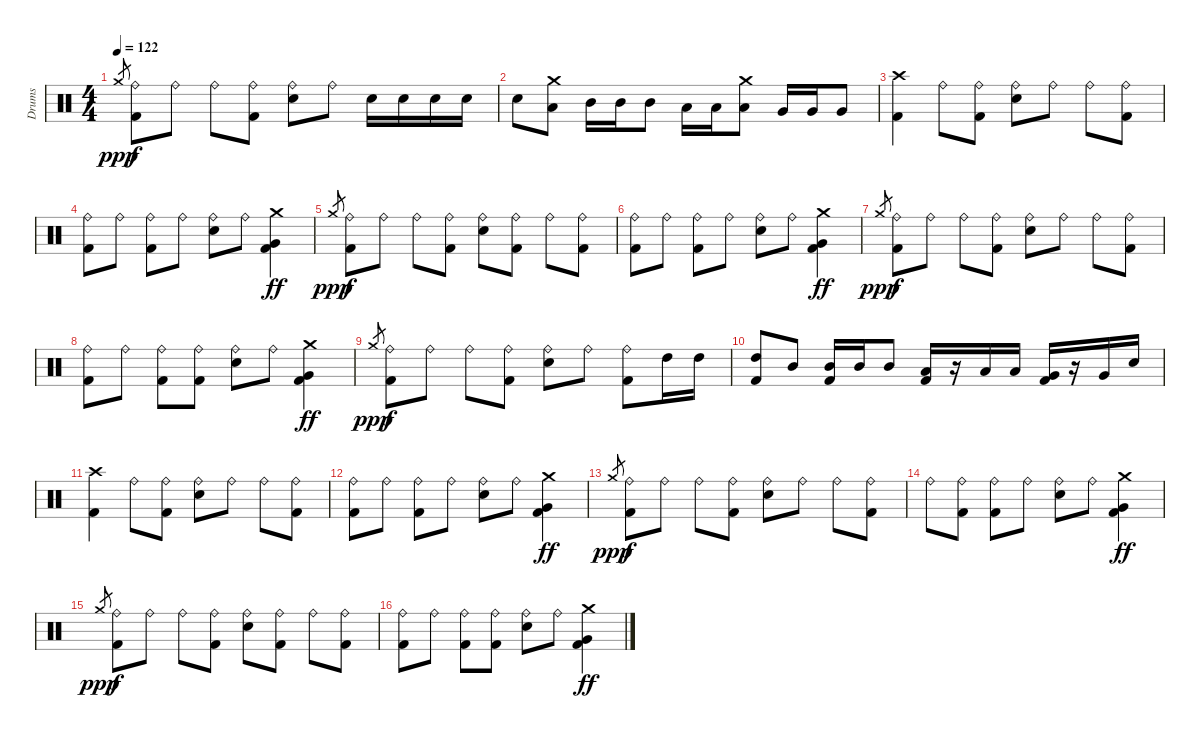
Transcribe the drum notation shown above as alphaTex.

\track ("Drums" "Drums") {instrument percussion}
\staff {score}
\articulation defaults
\ts (4 4)
\tempo 122
\clef neutral
\ks c "Crash medium (hit)".8{gr dy ppp}
("Ride (bell)" "Kick (hit) 2").8{dy f} "Ride (bell)".8 "Ride (bell)".8 ("Ride (bell)" "Kick (hit) 2").8 ("Ride (bell)" "Snare (hit) 2").8 "Ride (bell)".8 "Snare (hit) 2".16 "Snare (hit) 2".16 "Snare (hit) 2".16 "Snare (hit) 2".16 |
"Snare (hit) 2".8 ("Crash medium (hit)" "Low Tom (hit)").8 "Mid Tom (hit)".16 "Mid Tom (hit)".16 "Mid Tom (hit)".8 "Low Tom (hit)".16 "Low Tom (hit)".16 ("Crash medium (hit)" "Low Tom (hit)").8 "Very Low Tom (hit)".16 "Very Low Tom (hit)".16 "Very Low Tom (hit)".8 |
("Crash high (hit)" "Kick (hit) 2").4 "Ride (bell)".8 ("Ride (bell)" "Kick (hit) 2").8 ("Ride (bell)" "Snare (hit) 2").8 "Ride (bell)".8 "Ride (bell)".8 ("Ride (bell)" "Kick (hit) 2").8 |
("Ride (bell)" "Kick (hit) 2").8 "Ride (bell)".8 ("Ride (bell)" "Kick (hit) 2").8 "Ride (bell)".8 ("Ride (bell)" "Snare (hit) 2").8 "Ride (bell)".8 ("Crash medium (hit)" "Very Low Tom (hit)" "Kick (hit) 2").4{dy ff} |
"Crash medium (hit)".8{gr dy ppp} ("Ride (bell)" "Kick (hit) 2").8{dy f} "Ride (bell)".8 "Ride (bell)".8 ("Ride (bell)" "Kick (hit) 2").8 ("Ride (bell)" "Snare (hit) 2").8 ("Ride (bell)" "Kick (hit) 2").8 "Ride (bell)".8 ("Ride (bell)" "Kick (hit) 2").8 |
("Ride (bell)" "Kick (hit) 2").8 "Ride (bell)".8 ("Ride (bell)" "Kick (hit) 2").8 "Ride (bell)".8 ("Ride (bell)" "Snare (hit) 2").8 "Ride (bell)".8 ("Crash medium (hit)" "Very Low Tom (hit)" "Kick (hit) 2").4{dy ff} |
"Crash medium (hit)".8{gr dy ppp} ("Ride (bell)" "Kick (hit) 2").8{dy f} "Ride (bell)".8 "Ride (bell)".8 ("Ride (bell)" "Kick (hit) 2").8 ("Ride (bell)" "Snare (hit) 2").8 "Ride (bell)".8 "Ride (bell)".8 ("Ride (bell)" "Kick (hit) 2").8 |
("Ride (bell)" "Kick (hit) 2").8 "Ride (bell)".8 ("Ride (bell)" "Kick (hit) 2").8 ("Ride (bell)" "Kick (hit) 2").8 ("Ride (bell)" "Snare (hit) 2").8 "Ride (bell)".8 ("Crash medium (hit)" "Very Low Tom (hit)" "Kick (hit) 2").4{dy ff} |
"Crash medium (hit)".8{gr dy ppp} ("Ride (bell)" "Kick (hit) 2").8{dy f} "Ride (bell)".8 "Ride (bell)".8 ("Ride (bell)" "Kick (hit) 2").8 ("Ride (bell)" "Snare (hit) 2").8 "Ride (bell)".8 ("Ride (bell)" "Kick (hit) 2").8 "High Tom (hit)".16 "High Tom (hit)".16 |
("High Tom (hit)" "Kick (hit) 2").8 "Mid Tom (hit)".8 ("Mid Tom (hit)" "Kick (hit) 2").16 "Mid Tom (hit)".16 "Mid Tom (hit)".8 ("Low Tom (hit)" "Kick (hit) 2").16 r.16 "Low Tom (hit)".16 "Low Tom (hit)".16 ("Very Low Tom (hit)" "Kick (hit) 2").16 r.16 "Very Low Tom (hit)".16 "Snare (hit) 2".16 |
("Crash high (hit)" "Kick (hit) 2").4 "Ride (bell)".8 ("Ride (bell)" "Kick (hit) 2").8 ("Ride (bell)" "Snare (hit) 2").8 "Ride (bell)".8 "Ride (bell)".8 ("Ride (bell)" "Kick (hit) 2").8 |
("Ride (bell)" "Kick (hit) 2").8 "Ride (bell)".8 ("Ride (bell)" "Kick (hit) 2").8 "Ride (bell)".8 ("Ride (bell)" "Snare (hit) 2").8 "Ride (bell)".8 ("Crash medium (hit)" "Very Low Tom (hit)" "Kick (hit) 2").4{dy ff} |
"Crash medium (hit)".8{gr dy ppp} ("Ride (bell)" "Kick (hit) 2").8{dy f} "Ride (bell)".8 "Ride (bell)".8 ("Ride (bell)" "Kick (hit) 2").8 ("Ride (bell)" "Snare (hit) 2").8 "Ride (bell)".8 "Ride (bell)".8 ("Ride (bell)" "Kick (hit) 2").8 |
"Ride (bell)".8 ("Ride (bell)" "Kick (hit) 2").8 ("Ride (bell)" "Kick (hit) 2").8 "Ride (bell)".8 ("Ride (bell)" "Snare (hit) 2").8 "Ride (bell)".8 ("Crash medium (hit)" "Very Low Tom (hit)" "Kick (hit) 2").4{dy ff} |
"Crash medium (hit)".8{gr dy ppp} ("Ride (bell)" "Kick (hit) 2").8{dy f} "Ride (bell)".8 "Ride (bell)".8 ("Ride (bell)" "Kick (hit) 2").8 ("Ride (bell)" "Snare (hit) 2").8 ("Ride (bell)" "Kick (hit) 2").8 "Ride (bell)".8 ("Ride (bell)" "Kick (hit) 2").8 |
("Ride (bell)" "Kick (hit) 2").8 "Ride (bell)".8 ("Ride (bell)" "Kick (hit) 2").8 ("Ride (bell)" "Kick (hit) 2").8 ("Ride (bell)" "Snare (hit) 2").8 "Ride (bell)".8 ("Crash medium (hit)" "Very Low Tom (hit)" "Kick (hit) 2").4{dy ff}
